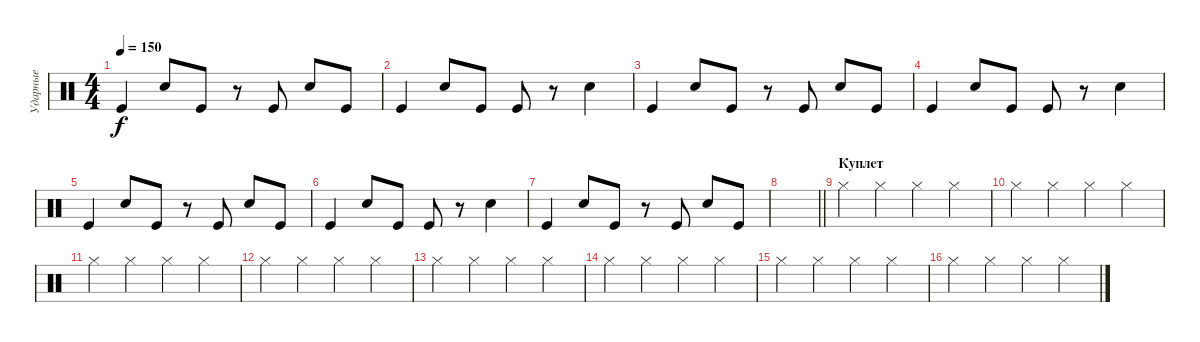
\track ("Ударные" "Ударные") {instrument percussion}
\staff {score}
\articulation defaults
\ts (4 4)
\tempo 150
\clef neutral
\ks c "Kick (hit)".4{dy f} "Snare (hit) 2".8 "Kick (hit)".8
r.8 "Kick (hit)".8 "Snare (hit) 2".8 "Kick (hit)".8 |
"Kick (hit)".4 "Snare (hit) 2".8 "Kick (hit)".8 "Kick (hit)".8 r.8 "Snare (hit) 2".4 |
"Kick (hit)".4 "Snare (hit) 2".8 "Kick (hit)".8 r.8 "Kick (hit)".8 "Snare (hit) 2".8 "Kick (hit)".8 |
"Kick (hit)".4 "Snare (hit) 2".8 "Kick (hit)".8 "Kick (hit)".8 r.8 "Snare (hit) 2".4 |
"Kick (hit)".4 "Snare (hit) 2".8 "Kick (hit)".8 r.8 "Kick (hit)".8 "Snare (hit) 2".8 "Kick (hit)".8 |
"Kick (hit)".4 "Snare (hit) 2".8 "Kick (hit)".8 "Kick (hit)".8 r.8 "Snare (hit) 2".4 |
"Kick (hit)".4 "Snare (hit) 2".8 "Kick (hit)".8 r.8 "Kick (hit)".8 "Snare (hit) 2".8 "Kick (hit)".8 |
\barLineRight lightlight
|
\section ("" "Куплет")
"Hi-Hat (closed)".4 "Hi-Hat (closed)".4 "Hi-Hat (closed)".4 "Hi-Hat (closed)".4 |
"Hi-Hat (closed)".4 "Hi-Hat (closed)".4 "Hi-Hat (closed)".4 "Hi-Hat (closed)".4 |
"Hi-Hat (closed)".4 "Hi-Hat (closed)".4 "Hi-Hat (closed)".4 "Hi-Hat (closed)".4 |
"Hi-Hat (closed)".4 "Hi-Hat (closed)".4 "Hi-Hat (closed)".4 "Hi-Hat (closed)".4 |
"Hi-Hat (closed)".4 "Hi-Hat (closed)".4 "Hi-Hat (closed)".4 "Hi-Hat (closed)".4 |
"Hi-Hat (closed)".4 "Hi-Hat (closed)".4 "Hi-Hat (closed)".4 "Hi-Hat (closed)".4 |
"Hi-Hat (closed)".4 "Hi-Hat (closed)".4 "Hi-Hat (closed)".4 "Hi-Hat (closed)".4 |
"Hi-Hat (closed)".4 "Hi-Hat (closed)".4 "Hi-Hat (closed)".4 "Hi-Hat (closed)".4
